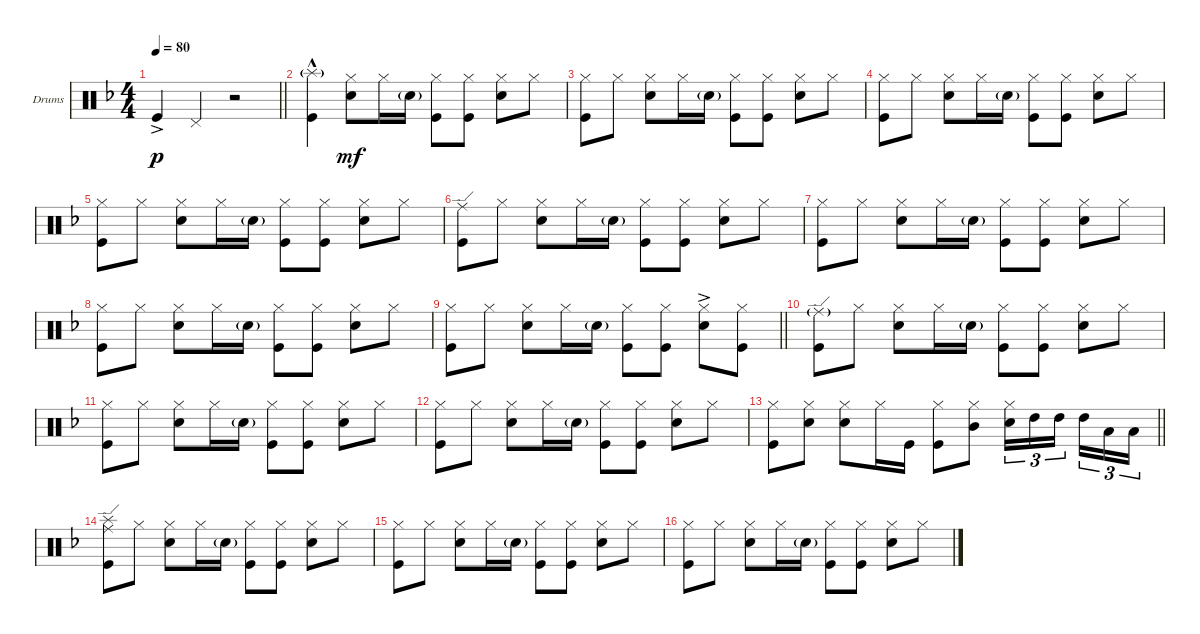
\defaultSystemsLayout 4
\bracketExtendMode groupsimilarinstruments
\firstSystemTrackNameOrientation horizontal
\otherSystemsTrackNameOrientation horizontal
\track ("Drumkit" "Drums") {instrument percussion}
\staff {score}
\articulation defaults
\ts (4 4)
\tempo 80
\clef neutral
\barLineRight lightlight
\ks f "Kick (hit)"{ac}.4{dy p} "Pedal Hi-Hat (hit)".4
r.2 |
("Kick (hit)"{hac} "Splash (hit)"{g}).4 ("Snare (hit) 2" "Hi-Hat (closed)").8{dy mf} "Hi-Hat (closed)".16 "Snare (hit) 2"{g}.16 ("Hi-Hat (closed)" "Kick (hit)").8 ("Hi-Hat (closed)" "Kick (hit)").8 ("Hi-Hat (closed)" "Snare (hit) 2").8 "Hi-Hat (closed)".8 |
("Kick (hit)" "Hi-Hat (closed)").8 "Hi-Hat (closed)".8 ("Snare (hit) 2" "Hi-Hat (closed)").8 "Hi-Hat (closed)".16 "Snare (hit) 2"{g}.16 ("Hi-Hat (closed)" "Kick (hit)").8 ("Hi-Hat (closed)" "Kick (hit)").8 ("Hi-Hat (closed)" "Snare (hit) 2").8 "Hi-Hat (closed)".8 |
("Kick (hit)" "Hi-Hat (closed)").8 "Hi-Hat (closed)".8 ("Snare (hit) 2" "Hi-Hat (closed)").8 "Hi-Hat (closed)".16 "Snare (hit) 2"{g}.16 ("Hi-Hat (closed)" "Kick (hit)").8 ("Hi-Hat (closed)" "Kick (hit)").8 ("Hi-Hat (closed)" "Snare (hit) 2").8 "Hi-Hat (closed)".8 |
("Kick (hit)" "Hi-Hat (closed)").8 "Hi-Hat (closed)".8 ("Snare (hit) 2" "Hi-Hat (closed)").8 "Hi-Hat (closed)".16 "Snare (hit) 2"{g}.16 ("Hi-Hat (closed)" "Kick (hit)").8 ("Hi-Hat (closed)" "Kick (hit)").8 ("Hi-Hat (closed)" "Snare (hit) 2").8 "Hi-Hat (closed)".8 |
("Kick (hit)" "Ride (edge)").8 "Hi-Hat (closed)".8 ("Snare (hit) 2" "Hi-Hat (closed)").8 "Hi-Hat (closed)".16 "Snare (hit) 2"{g}.16 ("Hi-Hat (closed)" "Kick (hit)").8 ("Hi-Hat (closed)" "Kick (hit)").8 ("Hi-Hat (closed)" "Snare (hit) 2").8 "Hi-Hat (closed)".8 |
("Kick (hit)" "Hi-Hat (closed)").8 "Hi-Hat (closed)".8 ("Snare (hit) 2" "Hi-Hat (closed)").8 "Hi-Hat (closed)".16 "Snare (hit) 2"{g}.16 ("Hi-Hat (closed)" "Kick (hit)").8 ("Hi-Hat (closed)" "Kick (hit)").8 ("Hi-Hat (closed)" "Snare (hit) 2").8 "Hi-Hat (closed)".8 |
("Kick (hit)" "Hi-Hat (closed)").8 "Hi-Hat (closed)".8 ("Snare (hit) 2" "Hi-Hat (closed)").8 "Hi-Hat (closed)".16 "Snare (hit) 2"{g}.16 ("Hi-Hat (closed)" "Kick (hit)").8 ("Hi-Hat (closed)" "Kick (hit)").8 ("Hi-Hat (closed)" "Snare (hit) 2").8 "Hi-Hat (closed)".8 |
\barLineRight lightlight
("Kick (hit)" "Hi-Hat (closed)").8 "Hi-Hat (closed)".8 ("Snare (hit) 2" "Hi-Hat (closed)").8 "Hi-Hat (closed)".16 "Snare (hit) 2"{g}.16 ("Hi-Hat (closed)" "Kick (hit)").8 ("Hi-Hat (closed)" "Kick (hit)").8 ("Hi-Hat (closed)" "Snare (hit) 2"{ac}).8 ("Hi-Hat (closed)" "Kick (hit)").8 |
("Kick (hit)" "Ride (edge)"{g}).8 "Hi-Hat (closed)".8 ("Snare (hit) 2" "Hi-Hat (closed)").8 "Hi-Hat (closed)".16 "Snare (hit) 2"{g}.16 ("Hi-Hat (closed)" "Kick (hit)").8 ("Hi-Hat (closed)" "Kick (hit)").8 ("Hi-Hat (closed)" "Snare (hit) 2").8 "Hi-Hat (closed)".8 |
("Kick (hit)" "Hi-Hat (closed)").8 "Hi-Hat (closed)".8 ("Snare (hit) 2" "Hi-Hat (closed)").8 "Hi-Hat (closed)".16 "Snare (hit) 2"{g}.16 ("Hi-Hat (closed)" "Kick (hit)").8 ("Hi-Hat (closed)" "Kick (hit)").8 ("Hi-Hat (closed)" "Snare (hit) 2").8 "Hi-Hat (closed)".8 |
("Kick (hit)" "Hi-Hat (closed)").8 "Hi-Hat (closed)".8 ("Snare (hit) 2" "Hi-Hat (closed)").8 "Hi-Hat (closed)".16 "Snare (hit) 2"{g}.16 ("Hi-Hat (closed)" "Kick (hit)").8 ("Hi-Hat (closed)" "Kick (hit)").8 ("Hi-Hat (closed)" "Snare (hit) 2").8 "Hi-Hat (closed)".8 |
\barLineRight lightlight
("Kick (hit)" "Hi-Hat (closed)").8 ("Hi-Hat (closed)" "Snare (hit) 2").8 ("Snare (hit) 2" "Hi-Hat (closed)").8 "Hi-Hat (closed)".16 "Kick (hit)".16 ("Hi-Hat (closed)" "Kick (hit)").8 ("Hi-Hat (closed)" "Mid Tom (hit)").8 ("Hi-Hat (closed)" "Snare (hit) 2").16{tu (3 2)} "High Tom (hit)".16{tu (3 2)} "High Tom (hit)".16{tu (3 2)} "High Tom (hit)".16{tu (3 2)} "Low Tom (hit)".16{tu (3 2)} "Low Tom (hit)".16{tu (3 2)} |
("Splash (hit)" "Kick (hit)" "Ride (edge)").8 "Hi-Hat (closed)".8 ("Snare (hit) 2" "Hi-Hat (closed)").8 "Hi-Hat (closed)".16 "Snare (hit) 2"{g}.16 ("Hi-Hat (closed)" "Kick (hit)").8 ("Hi-Hat (closed)" "Kick (hit)").8 ("Hi-Hat (closed)" "Snare (hit) 2").8 "Hi-Hat (closed)".8 |
("Kick (hit)" "Hi-Hat (closed)").8 "Hi-Hat (closed)".8 ("Snare (hit) 2" "Hi-Hat (closed)").8 "Hi-Hat (closed)".16 "Snare (hit) 2"{g}.16 ("Hi-Hat (closed)" "Kick (hit)").8 ("Hi-Hat (closed)" "Kick (hit)").8 ("Hi-Hat (closed)" "Snare (hit) 2").8 "Hi-Hat (closed)".8 |
("Kick (hit)" "Hi-Hat (closed)").8 "Hi-Hat (closed)".8 ("Snare (hit) 2" "Hi-Hat (closed)").8 "Hi-Hat (closed)".16 "Snare (hit) 2"{g}.16 ("Hi-Hat (closed)" "Kick (hit)").8 ("Hi-Hat (closed)" "Kick (hit)").8 ("Hi-Hat (closed)" "Snare (hit) 2").8 "Hi-Hat (closed)".8
